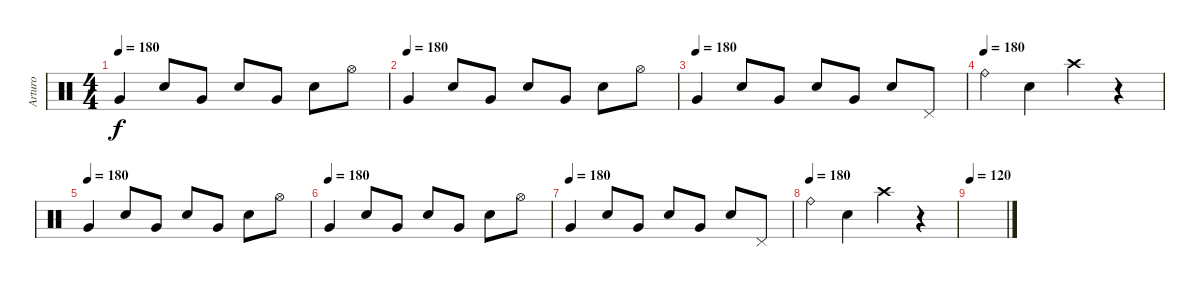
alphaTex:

\track ("Arturo" "Arturo") {instrument percussion}
\staff {score}
\articulation defaults
\ts (4 4)
\tempo 180
\clef neutral
\ks c "Very Low Tom (hit)".4{dy f} "Electric Snare (hit)".8 "Very Low Tom (hit)".8 "Electric Snare (hit)".8 "Very Low Tom (hit)".8 "Electric Snare (hit)".8 "Hi-Hat (open)".8
|
\tempo (180)
"Very Low Tom (hit)".4 "Electric Snare (hit)".8 "Very Low Tom (hit)".8 "Electric Snare (hit)".8 "Very Low Tom (hit)".8 "Electric Snare (hit)".8 "Hi-Hat (open)".8 |
\tempo (180)
"Very Low Tom (hit)".4 "Electric Snare (hit)".8 "Very Low Tom (hit)".8 "Electric Snare (hit)".8 "Very Low Tom (hit)".8 "Electric Snare (hit)".8 "Pedal Hi-Hat (hit)".8 |
\tempo (180)
"Ride (bell)".4 "Electric Snare (hit)".4 "Crash high (hit)".4 r.4 |
\tempo (180)
"Very Low Tom (hit)".4 "Electric Snare (hit)".8 "Very Low Tom (hit)".8 "Electric Snare (hit)".8 "Very Low Tom (hit)".8 "Electric Snare (hit)".8 "Hi-Hat (open)".8 |
\tempo (180)
"Very Low Tom (hit)".4 "Electric Snare (hit)".8 "Very Low Tom (hit)".8 "Electric Snare (hit)".8 "Very Low Tom (hit)".8 "Electric Snare (hit)".8 "Hi-Hat (open)".8 |
\tempo (180)
"Very Low Tom (hit)".4 "Electric Snare (hit)".8 "Very Low Tom (hit)".8 "Electric Snare (hit)".8 "Very Low Tom (hit)".8 "Electric Snare (hit)".8 "Pedal Hi-Hat (hit)".8 |
\tempo (180)
"Ride (bell)".4 "Electric Snare (hit)".4 "Crash high (hit)".4 r.4 |
\tempo 120
